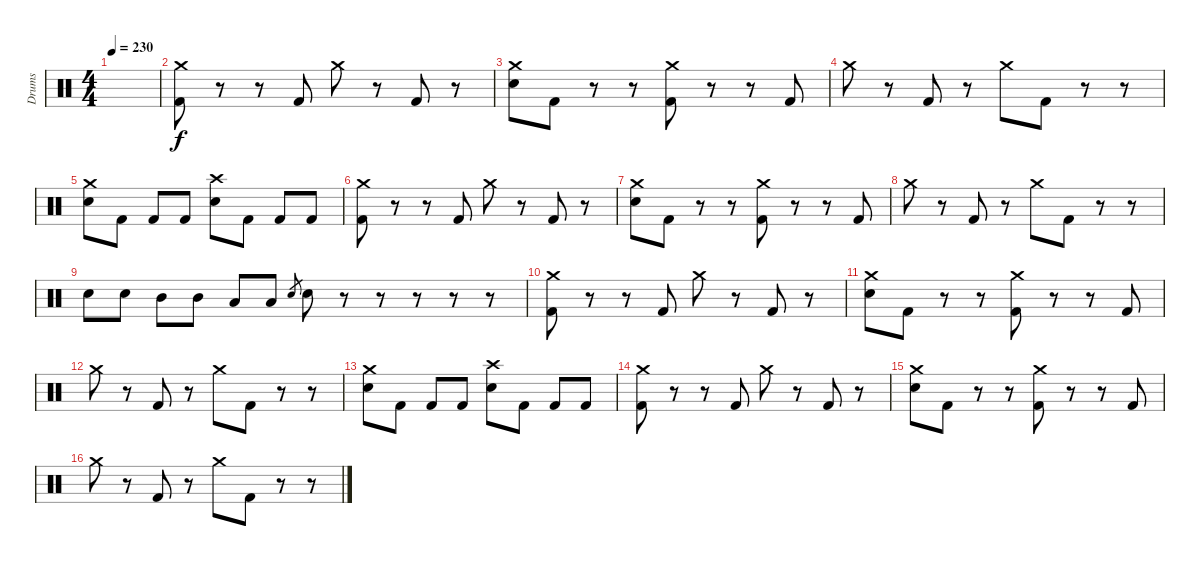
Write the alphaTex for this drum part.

\track ("Drums" "Drums") {instrument percussion}
\staff {score}
\articulation defaults
\ts (4 4)
\tempo 230
\clef neutral
\ks c
|
("Kick (hit) 2" "Crash medium (hit)").8 r.8 r.8 "Kick (hit) 2".8 "Crash medium (hit)".8 r.8 "Kick (hit) 2".8 r.8 |
("Electric Snare (hit)" "Crash medium (hit)").8 "Kick (hit) 2".8 r.8 r.8 ("Kick (hit) 2" "Crash medium (hit)").8 r.8 r.8 "Kick (hit) 2".8 |
"Crash medium (hit)".8 r.8 "Kick (hit) 2".8 r.8 "Crash medium (hit)".8 "Kick (hit) 2".8 r.8 r.8 |
("Electric Snare (hit)" "Crash medium (hit)").8 "Kick (hit) 2".8 "Kick (hit) 2".8 "Kick (hit) 2".8 ("Electric Snare (hit)" "Crash high (hit)").8 "Kick (hit) 2".8 "Kick (hit) 2".8 "Kick (hit) 2".8 |
("Kick (hit) 2" "Crash medium (hit)").8 r.8 r.8 "Kick (hit) 2".8 "Crash medium (hit)".8 r.8 "Kick (hit) 2".8 r.8 |
("Electric Snare (hit)" "Crash medium (hit)").8 "Kick (hit) 2".8 r.8 r.8 ("Kick (hit) 2" "Crash medium (hit)").8 r.8 r.8 "Kick (hit) 2".8 |
"Crash medium (hit)".8 r.8 "Kick (hit) 2".8 r.8 "Crash medium (hit)".8 "Kick (hit) 2".8 r.8 r.8 |
"Electric Snare (hit)".8 "Electric Snare (hit)".8 "Mid Tom (hit)".8 "Mid Tom (hit)".8 "Low Tom (hit)".8 "Low Tom (hit)".8 "Electric Snare (hit)".8{gr} "Electric Snare (hit)".8 r.8 r.8 r.8 r.8 r.8 |
("Kick (hit) 2" "Crash medium (hit)").8 r.8 r.8 "Kick (hit) 2".8 "Crash medium (hit)".8 r.8 "Kick (hit) 2".8 r.8 |
("Electric Snare (hit)" "Crash medium (hit)").8 "Kick (hit) 2".8 r.8 r.8 ("Kick (hit) 2" "Crash medium (hit)").8 r.8 r.8 "Kick (hit) 2".8 |
"Crash medium (hit)".8 r.8 "Kick (hit) 2".8 r.8 "Crash medium (hit)".8 "Kick (hit) 2".8 r.8 r.8 |
("Electric Snare (hit)" "Crash medium (hit)").8 "Kick (hit) 2".8 "Kick (hit) 2".8 "Kick (hit) 2".8 ("Electric Snare (hit)" "Crash high (hit)").8 "Kick (hit) 2".8 "Kick (hit) 2".8 "Kick (hit) 2".8 |
("Kick (hit) 2" "Crash medium (hit)").8 r.8 r.8 "Kick (hit) 2".8 "Crash medium (hit)".8 r.8 "Kick (hit) 2".8 r.8 |
("Electric Snare (hit)" "Crash medium (hit)").8 "Kick (hit) 2".8 r.8 r.8 ("Kick (hit) 2" "Crash medium (hit)").8 r.8 r.8 "Kick (hit) 2".8 |
"Crash medium (hit)".8 r.8 "Kick (hit) 2".8 r.8 "Crash medium (hit)".8 "Kick (hit) 2".8 r.8 r.8
